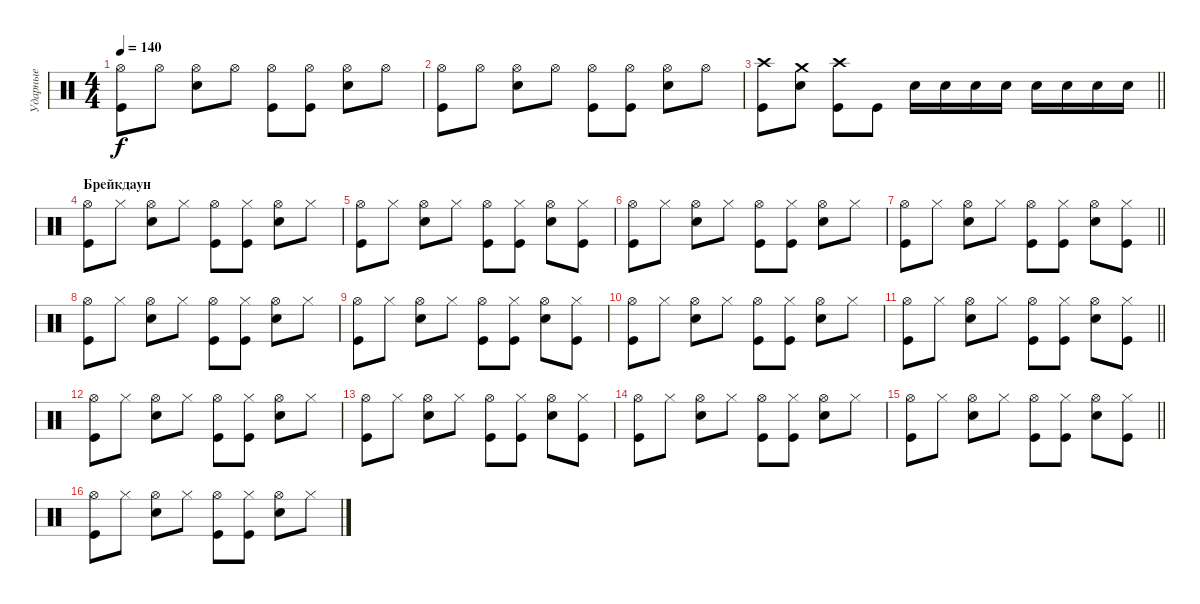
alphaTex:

\track ("Ударные" "Ударные") {instrument percussion}
\staff {score}
\articulation defaults
\ts (4 4)
\tempo 140
\clef neutral
\ks c
("Hi-Hat (open)" "Kick (hit)").8{dy f} "Hi-Hat (open)".8 ("Hi-Hat (open)" "Snare (hit) 2").8 "Hi-Hat (open)".8 ("Hi-Hat (open)" "Kick (hit)").8 ("Hi-Hat (open)" "Kick (hit)").8 ("Hi-Hat (open)" "Snare (hit) 2").8 "Hi-Hat (open)".8 |
("Hi-Hat (open)" "Kick (hit)").8 "Hi-Hat (open)".8 ("Hi-Hat (open)" "Snare (hit) 2").8 "Hi-Hat (open)".8 ("Hi-Hat (open)" "Kick (hit)").8 ("Hi-Hat (open)" "Kick (hit)").8 ("Hi-Hat (open)" "Snare (hit) 2").8 "Hi-Hat (open)".8 |
\barLineRight lightlight
("Crash high (hit)" "Kick (hit)").8 ("Crash medium (hit)" "Snare (hit) 2").8 ("Crash high (hit)" "Kick (hit)").8 "Kick (hit)".8 "Snare (hit) 2".16 "Snare (hit) 2".16 "Snare (hit) 2".16 "Snare (hit) 2".16 "Snare (hit) 2".16 "Snare (hit) 2".16 "Snare (hit) 2".16 "Snare (hit) 2".16 |
\section ("" "Брейкдаун")
("Hi-Hat (open)" "Kick (hit)").8 "Hi-Hat (closed)".8 ("Hi-Hat (open)" "Snare (hit) 2").8 "Hi-Hat (closed)".8 ("Hi-Hat (open)" "Kick (hit)").8 ("Hi-Hat (closed)" "Kick (hit)").8 ("Hi-Hat (open)" "Snare (hit) 2").8 "Hi-Hat (closed)".8 |
("Hi-Hat (open)" "Kick (hit)").8 "Hi-Hat (closed)".8 ("Hi-Hat (open)" "Snare (hit) 2").8 "Hi-Hat (closed)".8 ("Hi-Hat (open)" "Kick (hit)").8 ("Hi-Hat (closed)" "Kick (hit)").8 ("Hi-Hat (open)" "Snare (hit) 2").8 ("Hi-Hat (closed)" "Kick (hit)").8 |
("Hi-Hat (open)" "Kick (hit)").8 "Hi-Hat (closed)".8 ("Hi-Hat (open)" "Snare (hit) 2").8 "Hi-Hat (closed)".8 ("Hi-Hat (open)" "Kick (hit)").8 ("Hi-Hat (closed)" "Kick (hit)").8 ("Hi-Hat (open)" "Snare (hit) 2").8 "Hi-Hat (closed)".8 |
\barLineRight lightlight
("Hi-Hat (open)" "Kick (hit)").8 "Hi-Hat (closed)".8 ("Hi-Hat (open)" "Snare (hit) 2").8 "Hi-Hat (closed)".8 ("Hi-Hat (open)" "Kick (hit)").8 ("Hi-Hat (closed)" "Kick (hit)").8 ("Hi-Hat (open)" "Snare (hit) 2").8 ("Hi-Hat (closed)" "Kick (hit)").8 |
("Hi-Hat (open)" "Kick (hit)").8 "Hi-Hat (closed)".8 ("Hi-Hat (open)" "Snare (hit) 2").8 "Hi-Hat (closed)".8 ("Hi-Hat (open)" "Kick (hit)").8 ("Hi-Hat (closed)" "Kick (hit)").8 ("Hi-Hat (open)" "Snare (hit) 2").8 "Hi-Hat (closed)".8 |
("Hi-Hat (open)" "Kick (hit)").8 "Hi-Hat (closed)".8 ("Hi-Hat (open)" "Snare (hit) 2").8 "Hi-Hat (closed)".8 ("Hi-Hat (open)" "Kick (hit)").8 ("Hi-Hat (closed)" "Kick (hit)").8 ("Hi-Hat (open)" "Snare (hit) 2").8 ("Hi-Hat (closed)" "Kick (hit)").8 |
("Hi-Hat (open)" "Kick (hit)").8 "Hi-Hat (closed)".8 ("Hi-Hat (open)" "Snare (hit) 2").8 "Hi-Hat (closed)".8 ("Hi-Hat (open)" "Kick (hit)").8 ("Hi-Hat (closed)" "Kick (hit)").8 ("Hi-Hat (open)" "Snare (hit) 2").8 "Hi-Hat (closed)".8 |
\barLineRight lightlight
("Hi-Hat (open)" "Kick (hit)").8 "Hi-Hat (closed)".8 ("Hi-Hat (open)" "Snare (hit) 2").8 "Hi-Hat (closed)".8 ("Hi-Hat (open)" "Kick (hit)").8 ("Hi-Hat (closed)" "Kick (hit)").8 ("Hi-Hat (open)" "Snare (hit) 2").8 ("Hi-Hat (closed)" "Kick (hit)").8 |
("Hi-Hat (open)" "Kick (hit)").8 "Hi-Hat (closed)".8 ("Hi-Hat (open)" "Snare (hit) 2").8 "Hi-Hat (closed)".8 ("Hi-Hat (open)" "Kick (hit)").8 ("Hi-Hat (closed)" "Kick (hit)").8 ("Hi-Hat (open)" "Snare (hit) 2").8 "Hi-Hat (closed)".8 |
("Hi-Hat (open)" "Kick (hit)").8 "Hi-Hat (closed)".8 ("Hi-Hat (open)" "Snare (hit) 2").8 "Hi-Hat (closed)".8 ("Hi-Hat (open)" "Kick (hit)").8 ("Hi-Hat (closed)" "Kick (hit)").8 ("Hi-Hat (open)" "Snare (hit) 2").8 ("Hi-Hat (closed)" "Kick (hit)").8 |
("Hi-Hat (open)" "Kick (hit)").8 "Hi-Hat (closed)".8 ("Hi-Hat (open)" "Snare (hit) 2").8 "Hi-Hat (closed)".8 ("Hi-Hat (open)" "Kick (hit)").8 ("Hi-Hat (closed)" "Kick (hit)").8 ("Hi-Hat (open)" "Snare (hit) 2").8 "Hi-Hat (closed)".8 |
\barLineRight lightlight
("Hi-Hat (open)" "Kick (hit)").8 "Hi-Hat (closed)".8 ("Hi-Hat (open)" "Snare (hit) 2").8 "Hi-Hat (closed)".8 ("Hi-Hat (open)" "Kick (hit)").8 ("Hi-Hat (closed)" "Kick (hit)").8 ("Hi-Hat (open)" "Snare (hit) 2").8 ("Hi-Hat (closed)" "Kick (hit)").8 |
("Hi-Hat (open)" "Kick (hit)").8 "Hi-Hat (closed)".8 ("Hi-Hat (open)" "Snare (hit) 2").8 "Hi-Hat (closed)".8 ("Hi-Hat (open)" "Kick (hit)").8 ("Hi-Hat (closed)" "Kick (hit)").8 ("Hi-Hat (open)" "Snare (hit) 2").8 "Hi-Hat (closed)".8
